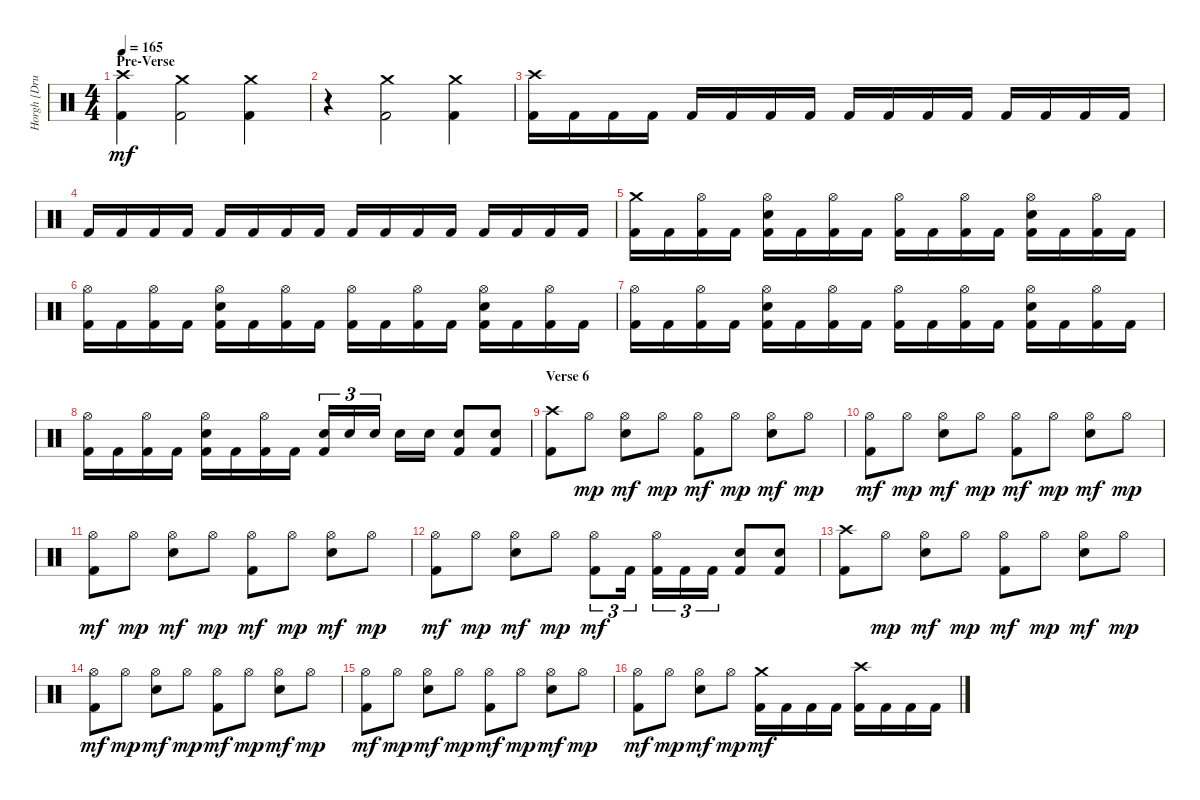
\track ("Horgh [Drums]" "Horgh [Dru") {instrument percussion}
\staff {score}
\articulation defaults
\ts (4 4)
\section ("" "Pre-Verse")
\tempo 165
\clef neutral
\ks c
("Crash high (hit)" "Kick (hit) 2").4{dy mf} ("Crash medium (hit)" "Kick (hit) 2").2 ("Crash medium (hit)" "Kick (hit) 2").4 |
r.4 ("Crash medium (hit)" "Kick (hit) 2").2 ("Crash medium (hit)" "Kick (hit) 2").4 |
("Crash high (hit)" "Kick (hit) 2").16 "Kick (hit) 2".16 "Kick (hit) 2".16 "Kick (hit) 2".16 "Kick (hit) 2".16 "Kick (hit) 2".16 "Kick (hit) 2".16 "Kick (hit) 2".16 "Kick (hit) 2".16 "Kick (hit) 2".16 "Kick (hit) 2".16 "Kick (hit) 2".16 "Kick (hit) 2".16 "Kick (hit) 2".16 "Kick (hit) 2".16 "Kick (hit) 2".16 |
"Kick (hit) 2".16 "Kick (hit) 2".16 "Kick (hit) 2".16 "Kick (hit) 2".16 "Kick (hit) 2".16 "Kick (hit) 2".16 "Kick (hit) 2".16 "Kick (hit) 2".16 "Kick (hit) 2".16 "Kick (hit) 2".16 "Kick (hit) 2".16 "Kick (hit) 2".16 "Kick (hit) 2".16 "Kick (hit) 2".16 "Kick (hit) 2".16 "Kick (hit) 2".16 |
("Crash medium (hit)" "Kick (hit) 2").16 "Kick (hit) 2".16 ("Hi-Hat (open)" "Kick (hit) 2").16 "Kick (hit) 2".16 ("Hi-Hat (open)" "Electric Snare (hit)" "Kick (hit) 2").16 "Kick (hit) 2".16 ("Hi-Hat (open)" "Kick (hit) 2").16 "Kick (hit) 2".16 ("Hi-Hat (open)" "Kick (hit) 2").16 "Kick (hit) 2".16 ("Hi-Hat (open)" "Kick (hit) 2").16 "Kick (hit) 2".16 ("Hi-Hat (open)" "Electric Snare (hit)" "Kick (hit) 2").16 "Kick (hit) 2".16 ("Hi-Hat (open)" "Kick (hit) 2").16 "Kick (hit) 2".16 |
("Hi-Hat (open)" "Kick (hit) 2").16 "Kick (hit) 2".16 ("Hi-Hat (open)" "Kick (hit) 2").16 "Kick (hit) 2".16 ("Hi-Hat (open)" "Electric Snare (hit)" "Kick (hit) 2").16 "Kick (hit) 2".16 ("Hi-Hat (open)" "Kick (hit) 2").16 "Kick (hit) 2".16 ("Hi-Hat (open)" "Kick (hit) 2").16 "Kick (hit) 2".16 ("Hi-Hat (open)" "Kick (hit) 2").16 "Kick (hit) 2".16 ("Hi-Hat (open)" "Electric Snare (hit)" "Kick (hit) 2").16 "Kick (hit) 2".16 ("Hi-Hat (open)" "Kick (hit) 2").16 "Kick (hit) 2".16 |
("Hi-Hat (open)" "Kick (hit) 2").16 "Kick (hit) 2".16 ("Hi-Hat (open)" "Kick (hit) 2").16 "Kick (hit) 2".16 ("Hi-Hat (open)" "Electric Snare (hit)" "Kick (hit) 2").16 "Kick (hit) 2".16 ("Hi-Hat (open)" "Kick (hit) 2").16 "Kick (hit) 2".16 ("Hi-Hat (open)" "Kick (hit) 2").16 "Kick (hit) 2".16 ("Hi-Hat (open)" "Kick (hit) 2").16 "Kick (hit) 2".16 ("Hi-Hat (open)" "Electric Snare (hit)" "Kick (hit) 2").16 "Kick (hit) 2".16 ("Hi-Hat (open)" "Kick (hit) 2").16 "Kick (hit) 2".16 |
("Hi-Hat (open)" "Kick (hit) 2").16 "Kick (hit) 2".16 ("Hi-Hat (open)" "Kick (hit) 2").16 "Kick (hit) 2".16 ("Hi-Hat (open)" "Electric Snare (hit)" "Kick (hit) 2").16 "Kick (hit) 2".16 ("Hi-Hat (open)" "Kick (hit) 2").16 "Kick (hit) 2".16 ("Electric Snare (hit)" "Kick (hit) 2").16{tu (3 2)} "Electric Snare (hit)".16{tu (3 2)} "Electric Snare (hit)".16{tu (3 2)} "Electric Snare (hit)".16 "Electric Snare (hit)".16 ("Electric Snare (hit)" "Kick (hit) 2").8 ("Electric Snare (hit)" "Kick (hit) 2").8 |
\section ("" "Verse 6")
("Crash high (hit)" "Kick (hit) 2").8 "Hi-Hat (open)".8{dy mp} ("Hi-Hat (open)" "Electric Snare (hit)").8{dy mf} "Hi-Hat (open)".8{dy mp} ("Hi-Hat (open)" "Kick (hit) 2").8{dy mf} "Hi-Hat (open)".8{dy mp} ("Hi-Hat (open)" "Electric Snare (hit)").8{dy mf} "Hi-Hat (open)".8{dy mp} |
("Hi-Hat (open)" "Kick (hit) 2").8{dy mf} "Hi-Hat (open)".8{dy mp} ("Hi-Hat (open)" "Electric Snare (hit)").8{dy mf} "Hi-Hat (open)".8{dy mp} ("Hi-Hat (open)" "Kick (hit) 2").8{dy mf} "Hi-Hat (open)".8{dy mp} ("Hi-Hat (open)" "Electric Snare (hit)").8{dy mf} "Hi-Hat (open)".8{dy mp} |
("Hi-Hat (open)" "Kick (hit) 2").8{dy mf} "Hi-Hat (open)".8{dy mp} ("Hi-Hat (open)" "Electric Snare (hit)").8{dy mf} "Hi-Hat (open)".8{dy mp} ("Hi-Hat (open)" "Kick (hit) 2").8{dy mf} "Hi-Hat (open)".8{dy mp} ("Hi-Hat (open)" "Electric Snare (hit)").8{dy mf} "Hi-Hat (open)".8{dy mp} |
("Hi-Hat (open)" "Kick (hit) 2").8{dy mf} "Hi-Hat (open)".8{dy mp} ("Hi-Hat (open)" "Electric Snare (hit)").8{dy mf} "Hi-Hat (open)".8{dy mp} ("Hi-Hat (open)" "Kick (hit) 2").8{tu (3 2) dy mf} "Kick (hit) 2".16{tu (3 2)} ("Hi-Hat (open)" "Kick (hit) 2").16{tu (3 2)} "Kick (hit) 2".16{tu (3 2)} "Kick (hit) 2".16{tu (3 2)} ("Electric Snare (hit)" "Kick (hit) 2").8 ("Electric Snare (hit)" "Kick (hit) 2").8 |
("Crash high (hit)" "Kick (hit) 2").8 "Hi-Hat (open)".8{dy mp} ("Hi-Hat (open)" "Electric Snare (hit)").8{dy mf} "Hi-Hat (open)".8{dy mp} ("Hi-Hat (open)" "Kick (hit) 2").8{dy mf} "Hi-Hat (open)".8{dy mp} ("Hi-Hat (open)" "Electric Snare (hit)").8{dy mf} "Hi-Hat (open)".8{dy mp} |
("Hi-Hat (open)" "Kick (hit) 2").8{dy mf} "Hi-Hat (open)".8{dy mp} ("Hi-Hat (open)" "Electric Snare (hit)").8{dy mf} "Hi-Hat (open)".8{dy mp} ("Hi-Hat (open)" "Kick (hit) 2").8{dy mf} "Hi-Hat (open)".8{dy mp} ("Hi-Hat (open)" "Electric Snare (hit)").8{dy mf} "Hi-Hat (open)".8{dy mp} |
("Hi-Hat (open)" "Kick (hit) 2").8{dy mf} "Hi-Hat (open)".8{dy mp} ("Hi-Hat (open)" "Electric Snare (hit)").8{dy mf} "Hi-Hat (open)".8{dy mp} ("Hi-Hat (open)" "Kick (hit) 2").8{dy mf} "Hi-Hat (open)".8{dy mp} ("Hi-Hat (open)" "Electric Snare (hit)").8{dy mf} "Hi-Hat (open)".8{dy mp} |
("Hi-Hat (open)" "Kick (hit) 2").8{dy mf} "Hi-Hat (open)".8{dy mp} ("Hi-Hat (open)" "Electric Snare (hit)").8{dy mf} "Hi-Hat (open)".8{dy mp} ("Crash medium (hit)" "Kick (hit) 2").16{dy mf} "Kick (hit) 2".16 "Kick (hit) 2".16 "Kick (hit) 2".16 ("Crash high (hit)" "Kick (hit) 2").16 "Kick (hit) 2".16 "Kick (hit) 2".16 "Kick (hit) 2".16
